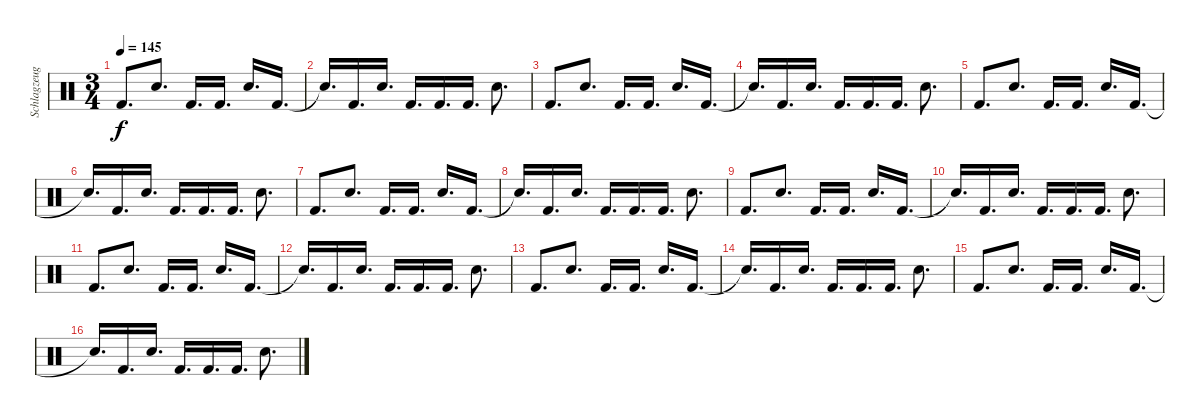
\track ("Schlagzeug" "Schlagzeug") {instrument percussion}
\staff {score}
\articulation defaults
\ts (3 4)
\tempo 145
\clef neutral
\ks c "Kick (hit) 2".8{d dy f} "Snare (hit) 2".8{d} "Kick (hit) 2".16{d} "Kick (hit) 2".16{d} "Snare (hit) 2".16{d} "Kick (hit) 2".16{d}
|
"Snare (hit)"{t}.16{d} "Kick (hit) 2".16{d} "Snare (hit) 2".16{d} "Kick (hit) 2".16{d} "Kick (hit) 2".16{d} "Kick (hit) 2".16{d} "Snare (hit) 2".8{d} |
"Kick (hit) 2".8{d} "Snare (hit) 2".8{d} "Kick (hit) 2".16{d} "Kick (hit) 2".16{d} "Snare (hit) 2".16{d} "Kick (hit) 2".16{d} |
"Snare (hit)"{t}.16{d} "Kick (hit) 2".16{d} "Snare (hit) 2".16{d} "Kick (hit) 2".16{d} "Kick (hit) 2".16{d} "Kick (hit) 2".16{d} "Snare (hit) 2".8{d} |
"Kick (hit) 2".8{d} "Snare (hit) 2".8{d} "Kick (hit) 2".16{d} "Kick (hit) 2".16{d} "Snare (hit) 2".16{d} "Kick (hit) 2".16{d} |
"Snare (hit)"{t}.16{d} "Kick (hit) 2".16{d} "Snare (hit) 2".16{d} "Kick (hit) 2".16{d} "Kick (hit) 2".16{d} "Kick (hit) 2".16{d} "Snare (hit) 2".8{d} |
"Kick (hit) 2".8{d} "Snare (hit) 2".8{d} "Kick (hit) 2".16{d} "Kick (hit) 2".16{d} "Snare (hit) 2".16{d} "Kick (hit) 2".16{d} |
"Snare (hit)"{t}.16{d} "Kick (hit) 2".16{d} "Snare (hit) 2".16{d} "Kick (hit) 2".16{d} "Kick (hit) 2".16{d} "Kick (hit) 2".16{d} "Snare (hit) 2".8{d} |
"Kick (hit) 2".8{d} "Snare (hit) 2".8{d} "Kick (hit) 2".16{d} "Kick (hit) 2".16{d} "Snare (hit) 2".16{d} "Kick (hit) 2".16{d} |
"Snare (hit)"{t}.16{d} "Kick (hit) 2".16{d} "Snare (hit) 2".16{d} "Kick (hit) 2".16{d} "Kick (hit) 2".16{d} "Kick (hit) 2".16{d} "Snare (hit) 2".8{d} |
"Kick (hit) 2".8{d} "Snare (hit) 2".8{d} "Kick (hit) 2".16{d} "Kick (hit) 2".16{d} "Snare (hit) 2".16{d} "Kick (hit) 2".16{d} |
"Snare (hit)"{t}.16{d} "Kick (hit) 2".16{d} "Snare (hit) 2".16{d} "Kick (hit) 2".16{d} "Kick (hit) 2".16{d} "Kick (hit) 2".16{d} "Snare (hit) 2".8{d} |
"Kick (hit) 2".8{d} "Snare (hit) 2".8{d} "Kick (hit) 2".16{d} "Kick (hit) 2".16{d} "Snare (hit) 2".16{d} "Kick (hit) 2".16{d} |
"Snare (hit)"{t}.16{d} "Kick (hit) 2".16{d} "Snare (hit) 2".16{d} "Kick (hit) 2".16{d} "Kick (hit) 2".16{d} "Kick (hit) 2".16{d} "Snare (hit) 2".8{d} |
"Kick (hit) 2".8{d} "Snare (hit) 2".8{d} "Kick (hit) 2".16{d} "Kick (hit) 2".16{d} "Snare (hit) 2".16{d} "Kick (hit) 2".16{d} |
"Snare (hit)"{t}.16{d} "Kick (hit) 2".16{d} "Snare (hit) 2".16{d} "Kick (hit) 2".16{d} "Kick (hit) 2".16{d} "Kick (hit) 2".16{d} "Snare (hit) 2".8{d}
